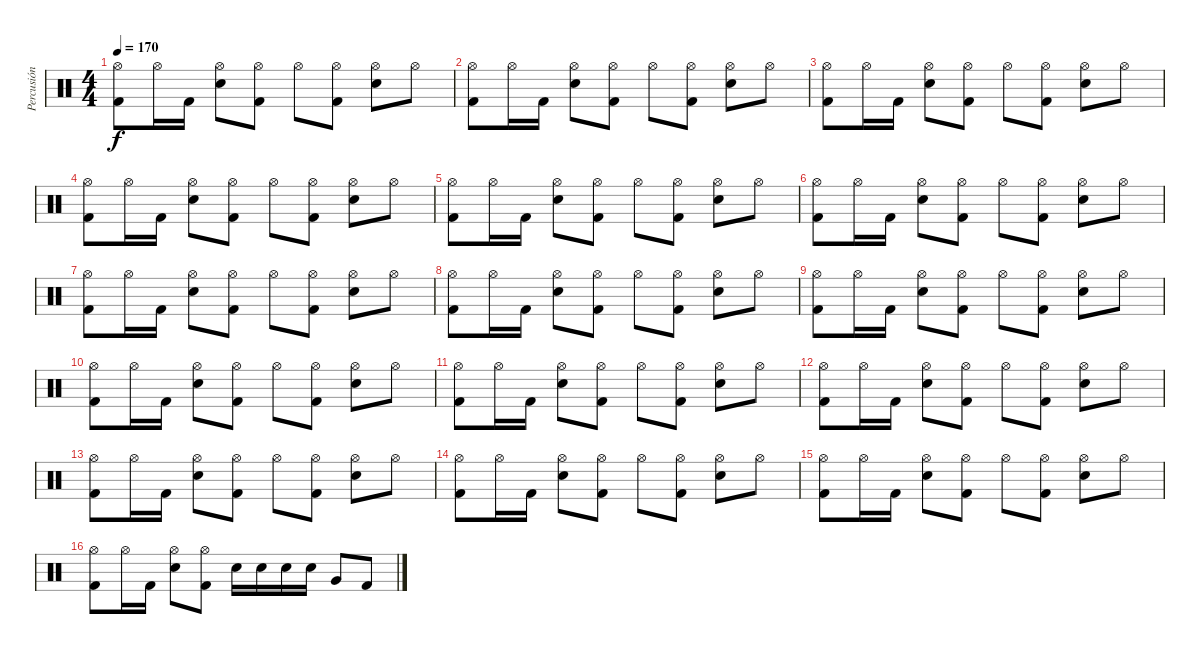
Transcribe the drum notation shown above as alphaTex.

\track ("Percusión" "Percusión") {instrument percussion}
\staff {score}
\articulation defaults
\ts (4 4)
\tempo 170
\clef neutral
\ks c
("Hi-Hat (open)" "Kick (hit) 2").8{dy f} "Hi-Hat (open)".16 "Kick (hit) 2".16 ("Hi-Hat (open)" "Snare (hit) 2").8 ("Hi-Hat (open)" "Kick (hit) 2").8 "Hi-Hat (open)".8 ("Hi-Hat (open)" "Kick (hit) 2").8 ("Hi-Hat (open)" "Snare (hit) 2").8 "Hi-Hat (open)".8 |
("Hi-Hat (open)" "Kick (hit) 2").8 "Hi-Hat (open)".16 "Kick (hit) 2".16 ("Hi-Hat (open)" "Snare (hit) 2").8 ("Hi-Hat (open)" "Kick (hit) 2").8 "Hi-Hat (open)".8 ("Hi-Hat (open)" "Kick (hit) 2").8 ("Hi-Hat (open)" "Snare (hit) 2").8 "Hi-Hat (open)".8 |
("Hi-Hat (open)" "Kick (hit) 2").8 "Hi-Hat (open)".16 "Kick (hit) 2".16 ("Hi-Hat (open)" "Snare (hit) 2").8 ("Hi-Hat (open)" "Kick (hit) 2").8 "Hi-Hat (open)".8 ("Hi-Hat (open)" "Kick (hit) 2").8 ("Hi-Hat (open)" "Snare (hit) 2").8 "Hi-Hat (open)".8 |
("Hi-Hat (open)" "Kick (hit) 2").8 "Hi-Hat (open)".16 "Kick (hit) 2".16 ("Hi-Hat (open)" "Snare (hit) 2").8 ("Hi-Hat (open)" "Kick (hit) 2").8 "Hi-Hat (open)".8 ("Hi-Hat (open)" "Kick (hit) 2").8 ("Hi-Hat (open)" "Snare (hit) 2").8 "Hi-Hat (open)".8 |
("Hi-Hat (open)" "Kick (hit) 2").8 "Hi-Hat (open)".16 "Kick (hit) 2".16 ("Hi-Hat (open)" "Snare (hit) 2").8 ("Hi-Hat (open)" "Kick (hit) 2").8 "Hi-Hat (open)".8 ("Hi-Hat (open)" "Kick (hit) 2").8 ("Hi-Hat (open)" "Snare (hit) 2").8 "Hi-Hat (open)".8 |
("Hi-Hat (open)" "Kick (hit) 2").8 "Hi-Hat (open)".16 "Kick (hit) 2".16 ("Hi-Hat (open)" "Snare (hit) 2").8 ("Hi-Hat (open)" "Kick (hit) 2").8 "Hi-Hat (open)".8 ("Hi-Hat (open)" "Kick (hit) 2").8 ("Hi-Hat (open)" "Snare (hit) 2").8 "Hi-Hat (open)".8 |
("Hi-Hat (open)" "Kick (hit) 2").8 "Hi-Hat (open)".16 "Kick (hit) 2".16 ("Hi-Hat (open)" "Snare (hit) 2").8 ("Hi-Hat (open)" "Kick (hit) 2").8 "Hi-Hat (open)".8 ("Hi-Hat (open)" "Kick (hit) 2").8 ("Hi-Hat (open)" "Snare (hit) 2").8 "Hi-Hat (open)".8 |
("Hi-Hat (open)" "Kick (hit) 2").8 "Hi-Hat (open)".16 "Kick (hit) 2".16 ("Hi-Hat (open)" "Snare (hit) 2").8 ("Hi-Hat (open)" "Kick (hit) 2").8 "Hi-Hat (open)".8 ("Hi-Hat (open)" "Kick (hit) 2").8 ("Hi-Hat (open)" "Snare (hit) 2").8 "Hi-Hat (open)".8 |
("Hi-Hat (open)" "Kick (hit) 2").8 "Hi-Hat (open)".16 "Kick (hit) 2".16 ("Hi-Hat (open)" "Snare (hit) 2").8 ("Hi-Hat (open)" "Kick (hit) 2").8 "Hi-Hat (open)".8 ("Hi-Hat (open)" "Kick (hit) 2").8 ("Hi-Hat (open)" "Snare (hit) 2").8 "Hi-Hat (open)".8 |
("Hi-Hat (open)" "Kick (hit) 2").8 "Hi-Hat (open)".16 "Kick (hit) 2".16 ("Hi-Hat (open)" "Snare (hit) 2").8 ("Hi-Hat (open)" "Kick (hit) 2").8 "Hi-Hat (open)".8 ("Hi-Hat (open)" "Kick (hit) 2").8 ("Hi-Hat (open)" "Snare (hit) 2").8 "Hi-Hat (open)".8 |
("Hi-Hat (open)" "Kick (hit) 2").8 "Hi-Hat (open)".16 "Kick (hit) 2".16 ("Hi-Hat (open)" "Snare (hit) 2").8 ("Hi-Hat (open)" "Kick (hit) 2").8 "Hi-Hat (open)".8 ("Hi-Hat (open)" "Kick (hit) 2").8 ("Hi-Hat (open)" "Snare (hit) 2").8 "Hi-Hat (open)".8 |
("Hi-Hat (open)" "Kick (hit) 2").8 "Hi-Hat (open)".16 "Kick (hit) 2".16 ("Hi-Hat (open)" "Snare (hit) 2").8 ("Hi-Hat (open)" "Kick (hit) 2").8 "Hi-Hat (open)".8 ("Hi-Hat (open)" "Kick (hit) 2").8 ("Hi-Hat (open)" "Snare (hit) 2").8 "Hi-Hat (open)".8 |
("Hi-Hat (open)" "Kick (hit) 2").8 "Hi-Hat (open)".16 "Kick (hit) 2".16 ("Hi-Hat (open)" "Snare (hit) 2").8 ("Hi-Hat (open)" "Kick (hit) 2").8 "Hi-Hat (open)".8 ("Hi-Hat (open)" "Kick (hit) 2").8 ("Hi-Hat (open)" "Snare (hit) 2").8 "Hi-Hat (open)".8 |
("Hi-Hat (open)" "Kick (hit) 2").8 "Hi-Hat (open)".16 "Kick (hit) 2".16 ("Hi-Hat (open)" "Snare (hit) 2").8 ("Hi-Hat (open)" "Kick (hit) 2").8 "Hi-Hat (open)".8 ("Hi-Hat (open)" "Kick (hit) 2").8 ("Hi-Hat (open)" "Snare (hit) 2").8 "Hi-Hat (open)".8 |
("Hi-Hat (open)" "Kick (hit) 2").8 "Hi-Hat (open)".16 "Kick (hit) 2".16 ("Hi-Hat (open)" "Snare (hit) 2").8 ("Hi-Hat (open)" "Kick (hit) 2").8 "Hi-Hat (open)".8 ("Hi-Hat (open)" "Kick (hit) 2").8 ("Hi-Hat (open)" "Snare (hit) 2").8 "Hi-Hat (open)".8 |
("Hi-Hat (open)" "Kick (hit) 2").8 "Hi-Hat (open)".16 "Kick (hit) 2".16 ("Hi-Hat (open)" "Snare (hit) 2").8 ("Hi-Hat (open)" "Kick (hit) 2").8 "Snare (hit) 2".16 "Snare (hit) 2".16 "Snare (hit) 2".16 "Snare (hit) 2".16 "Very Low Tom (hit)".8 "Kick (hit) 2".8
